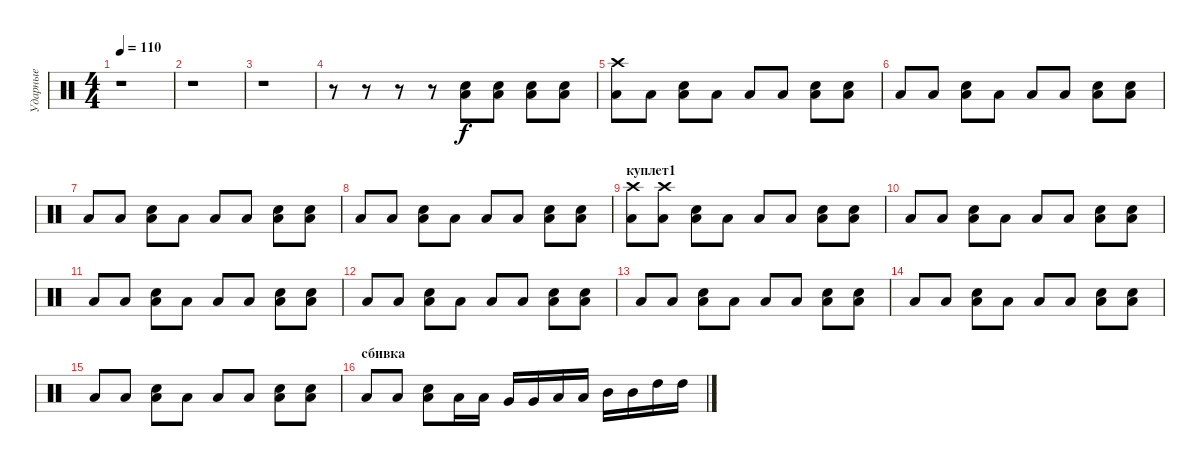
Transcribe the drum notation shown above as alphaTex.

\track ("Ударные" "Ударные") {instrument percussion}
\staff {score}
\articulation defaults
\ts (4 4)
\tempo 110
\clef neutral
\ks c
r.1{dy f} |
r.1 |
r.1 |
r.8 r.8 r.8 r.8 ("Snare (hit) 2" "Low Floor Tom (hit)").8 ("Snare (hit) 2" "Low Floor Tom (hit)").8 ("Snare (hit) 2" "Low Floor Tom (hit)").8 ("Snare (hit) 2" "Low Floor Tom (hit)").8 |
("Crash high (hit)" "Low Floor Tom (hit)").8 "Low Floor Tom (hit)".8 ("Snare (hit) 2" "Low Floor Tom (hit)").8 "Low Floor Tom (hit)".8 "Low Floor Tom (hit)".8 "Low Floor Tom (hit)".8 ("Snare (hit) 2" "Low Floor Tom (hit)").8 ("Snare (hit) 2" "Low Floor Tom (hit)").8 |
"Low Floor Tom (hit)".8 "Low Floor Tom (hit)".8 ("Snare (hit) 2" "Low Floor Tom (hit)").8 "Low Floor Tom (hit)".8 "Low Floor Tom (hit)".8 "Low Floor Tom (hit)".8 ("Snare (hit) 2" "Low Floor Tom (hit)").8 ("Snare (hit) 2" "Low Floor Tom (hit)").8 |
"Low Floor Tom (hit)".8 "Low Floor Tom (hit)".8 ("Snare (hit) 2" "Low Floor Tom (hit)").8 "Low Floor Tom (hit)".8 "Low Floor Tom (hit)".8 "Low Floor Tom (hit)".8 ("Snare (hit) 2" "Low Floor Tom (hit)").8 ("Snare (hit) 2" "Low Floor Tom (hit)").8 |
"Low Floor Tom (hit)".8 "Low Floor Tom (hit)".8 ("Snare (hit) 2" "Low Floor Tom (hit)").8 "Low Floor Tom (hit)".8 "Low Floor Tom (hit)".8 "Low Floor Tom (hit)".8 ("Snare (hit) 2" "Low Floor Tom (hit)").8 ("Snare (hit) 2" "Low Floor Tom (hit)").8 |
\section ("" "куплет1")
("Crash high (hit)" "Low Floor Tom (hit)").8 ("Crash high (hit)" "Low Floor Tom (hit)").8 ("Snare (hit) 2" "Low Floor Tom (hit)").8 "Low Floor Tom (hit)".8 "Low Floor Tom (hit)".8 "Low Floor Tom (hit)".8 ("Snare (hit) 2" "Low Floor Tom (hit)").8 ("Snare (hit) 2" "Low Floor Tom (hit)").8 |
"Low Floor Tom (hit)".8 "Low Floor Tom (hit)".8 ("Snare (hit) 2" "Low Floor Tom (hit)").8 "Low Floor Tom (hit)".8 "Low Floor Tom (hit)".8 "Low Floor Tom (hit)".8 ("Snare (hit) 2" "Low Floor Tom (hit)").8 ("Snare (hit) 2" "Low Floor Tom (hit)").8 |
"Low Floor Tom (hit)".8 "Low Floor Tom (hit)".8 ("Snare (hit) 2" "Low Floor Tom (hit)").8 "Low Floor Tom (hit)".8 "Low Floor Tom (hit)".8 "Low Floor Tom (hit)".8 ("Snare (hit) 2" "Low Floor Tom (hit)").8 ("Snare (hit) 2" "Low Floor Tom (hit)").8 |
"Low Floor Tom (hit)".8 "Low Floor Tom (hit)".8 ("Snare (hit) 2" "Low Floor Tom (hit)").8 "Low Floor Tom (hit)".8 "Low Floor Tom (hit)".8 "Low Floor Tom (hit)".8 ("Snare (hit) 2" "Low Floor Tom (hit)").8 ("Snare (hit) 2" "Low Floor Tom (hit)").8 |
"Low Floor Tom (hit)".8 "Low Floor Tom (hit)".8 ("Snare (hit) 2" "Low Floor Tom (hit)").8 "Low Floor Tom (hit)".8 "Low Floor Tom (hit)".8 "Low Floor Tom (hit)".8 ("Snare (hit) 2" "Low Floor Tom (hit)").8 ("Snare (hit) 2" "Low Floor Tom (hit)").8 |
"Low Floor Tom (hit)".8 "Low Floor Tom (hit)".8 ("Snare (hit) 2" "Low Floor Tom (hit)").8 "Low Floor Tom (hit)".8 "Low Floor Tom (hit)".8 "Low Floor Tom (hit)".8 ("Snare (hit) 2" "Low Floor Tom (hit)").8 ("Snare (hit) 2" "Low Floor Tom (hit)").8 |
"Low Floor Tom (hit)".8 "Low Floor Tom (hit)".8 ("Snare (hit) 2" "Low Floor Tom (hit)").8 "Low Floor Tom (hit)".8 "Low Floor Tom (hit)".8 "Low Floor Tom (hit)".8 ("Snare (hit) 2" "Low Floor Tom (hit)").8 ("Snare (hit) 2" "Low Floor Tom (hit)").8 |
\section ("" "сбивка")
"Low Floor Tom (hit)".8 "Low Floor Tom (hit)".8 ("Snare (hit) 2" "Low Floor Tom (hit)").8 "Low Floor Tom (hit)".16 "Low Floor Tom (hit)".16 "Very Low Tom (hit)".16 "Very Low Tom (hit)".16 "Low Tom (hit)".16 "Low Tom (hit)".16 "Mid Tom (hit)".16 "Mid Tom (hit)".16 "High Tom (hit)".16 "High Tom (hit)".16
